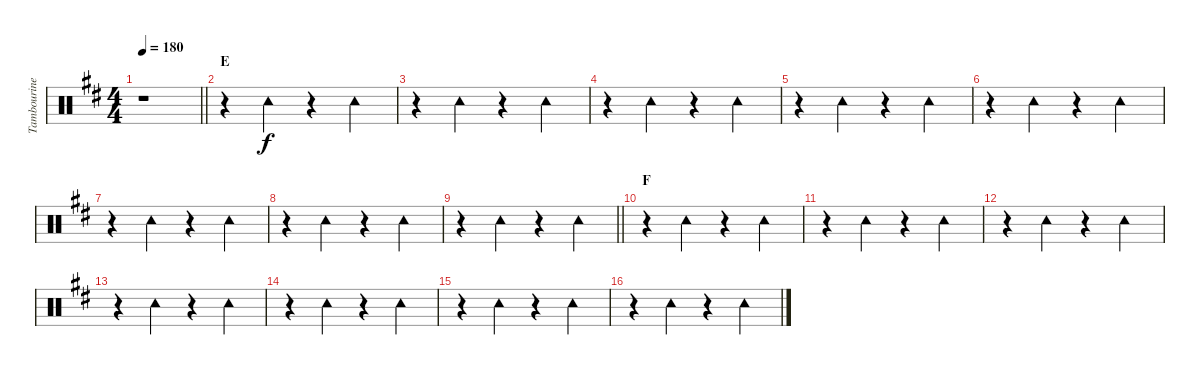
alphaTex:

\track ("Tambourine" "Tambourine") {instrument percussion}
\staff {score}
\articulation defaults
\ts (4 4)
\tempo 180
\clef neutral
\barLineRight lightlight
\ks d
r.1{dy f} |
\section ("" "E")
r.4 "Tambourine (hit)".4 r.4 "Tambourine (hit)".4 |
r.4 "Tambourine (hit)".4 r.4 "Tambourine (hit)".4 |
r.4 "Tambourine (hit)".4 r.4 "Tambourine (hit)".4 |
r.4 "Tambourine (hit)".4 r.4 "Tambourine (hit)".4 |
r.4 "Tambourine (hit)".4 r.4 "Tambourine (hit)".4 |
r.4 "Tambourine (hit)".4 r.4 "Tambourine (hit)".4 |
r.4 "Tambourine (hit)".4 r.4 "Tambourine (hit)".4 |
\barLineRight lightlight
r.4 "Tambourine (hit)".4 r.4 "Tambourine (hit)".4 |
\section ("" "F")
r.4 "Tambourine (hit)".4 r.4 "Tambourine (hit)".4 |
r.4 "Tambourine (hit)".4 r.4 "Tambourine (hit)".4 |
r.4 "Tambourine (hit)".4 r.4 "Tambourine (hit)".4 |
r.4 "Tambourine (hit)".4 r.4 "Tambourine (hit)".4 |
r.4 "Tambourine (hit)".4 r.4 "Tambourine (hit)".4 |
r.4 "Tambourine (hit)".4 r.4 "Tambourine (hit)".4 |
r.4 "Tambourine (hit)".4 r.4 "Tambourine (hit)".4
